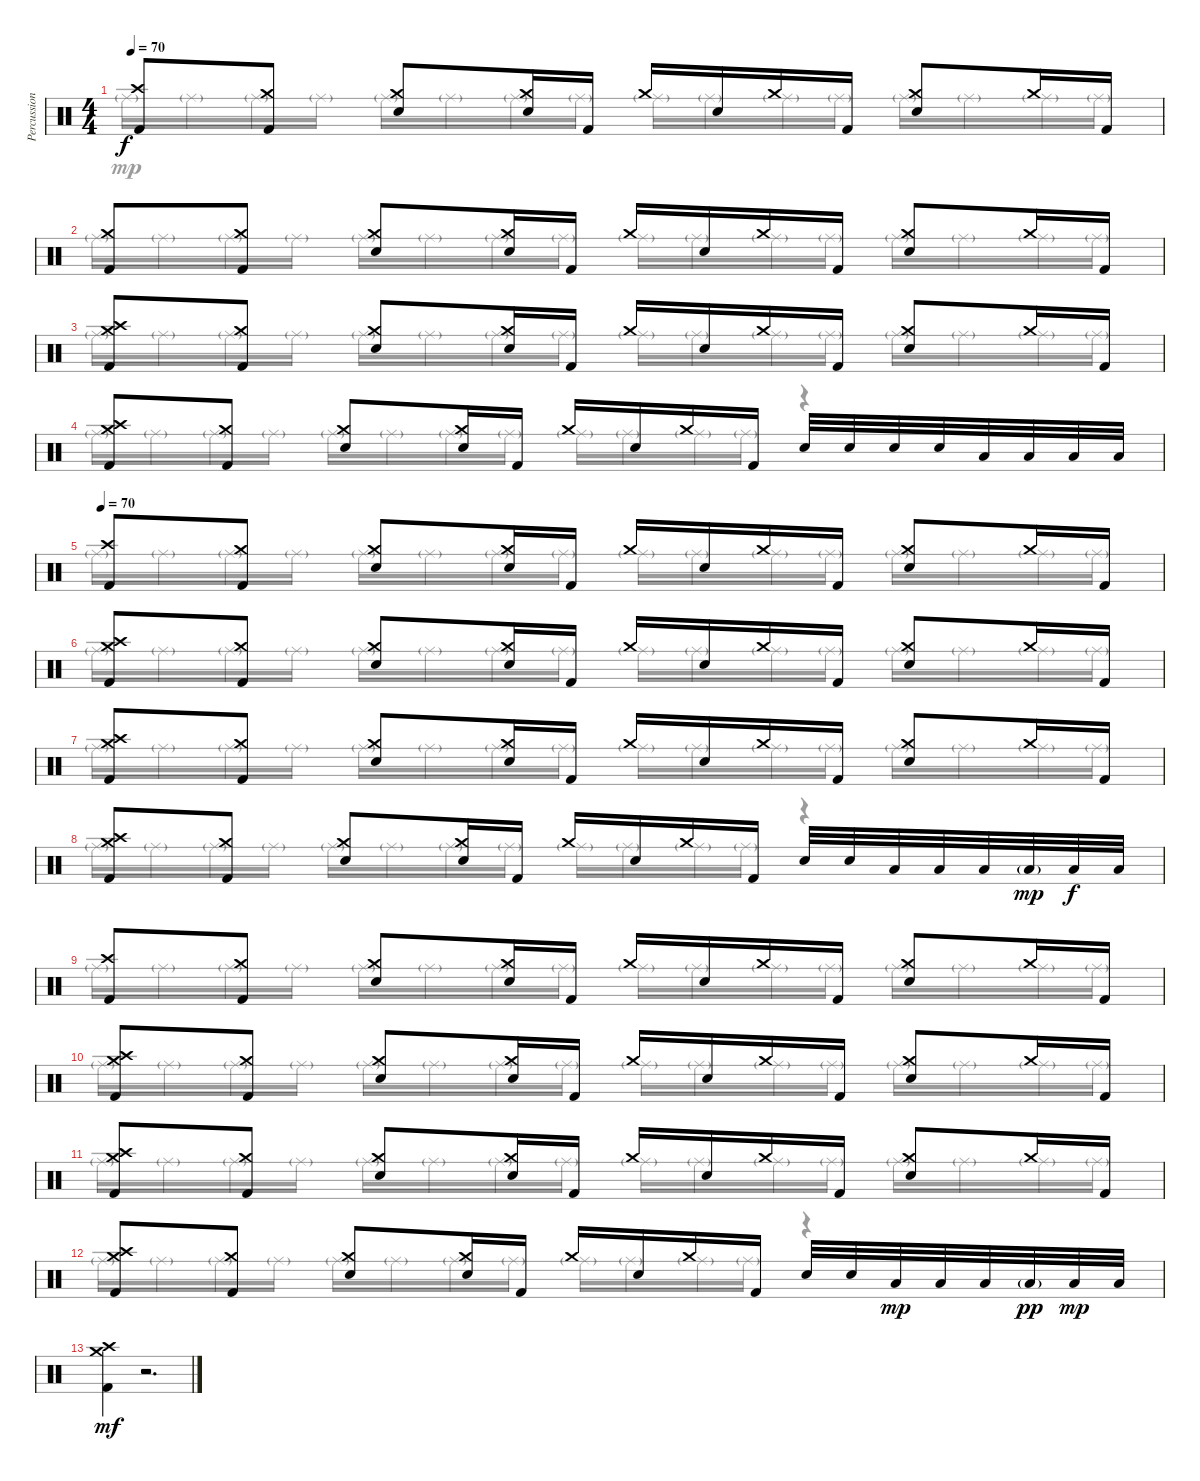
\track ("Percussion" "Percussion") {instrument percussion}
\staff {score}
\articulation defaults
\voice
\ts (4 4)
\tempo 70
\clef neutral
\ks c
("Crash high (hit)" "Kick (hit) 2").8{dy f} ("Crash medium (hit)" "Kick (hit) 2").8 ("Crash medium (hit)" "Electric Snare (hit)").8 ("Crash medium (hit)" "Electric Snare (hit)").16 "Kick (hit) 2".16 "Crash medium (hit)".16 "Electric Snare (hit)".16 "Crash medium (hit)".16 "Kick (hit) 2".16 ("Crash medium (hit)" "Electric Snare (hit)").8 "Crash medium (hit)".16 "Kick (hit) 2".16 |
("Crash medium (hit)" "Kick (hit) 2").8 ("Crash medium (hit)" "Kick (hit) 2").8 ("Crash medium (hit)" "Electric Snare (hit)").8 ("Crash medium (hit)" "Electric Snare (hit)").16 "Kick (hit) 2".16 "Crash medium (hit)".16 "Electric Snare (hit)".16 "Crash medium (hit)".16 "Kick (hit) 2".16 ("Crash medium (hit)" "Electric Snare (hit)").8 "Crash medium (hit)".16 "Kick (hit) 2".16 |
("Crash medium (hit)" "Crash high (hit)" "Kick (hit) 2").8 ("Crash medium (hit)" "Kick (hit) 2").8 ("Crash medium (hit)" "Electric Snare (hit)").8 ("Crash medium (hit)" "Electric Snare (hit)").16 "Kick (hit) 2".16 "Crash medium (hit)".16 "Electric Snare (hit)".16 "Crash medium (hit)".16 "Kick (hit) 2".16 ("Crash medium (hit)" "Electric Snare (hit)").8 "Crash medium (hit)".16 "Kick (hit) 2".16 |
("Crash medium (hit)" "Crash high (hit)" "Kick (hit) 2").8 ("Crash medium (hit)" "Kick (hit) 2").8 ("Crash medium (hit)" "Electric Snare (hit)").8 ("Crash medium (hit)" "Electric Snare (hit)").16 "Kick (hit) 2".16 "Crash medium (hit)".16 "Electric Snare (hit)".16 "Crash medium (hit)".16 "Kick (hit) 2".16 "Electric Snare (hit)".32 "Electric Snare (hit)".32 "Electric Snare (hit)".32 "Electric Snare (hit)".32 "Low Tom (hit)".32 "Low Tom (hit)".32 "Low Tom (hit)".32 "Low Tom (hit)".32 |
\tempo 70
("Crash high (hit)" "Kick (hit) 2").8 ("Crash medium (hit)" "Kick (hit) 2").8 ("Crash medium (hit)" "Electric Snare (hit)").8 ("Crash medium (hit)" "Electric Snare (hit)").16 "Kick (hit) 2".16 "Crash medium (hit)".16 "Electric Snare (hit)".16 "Crash medium (hit)".16 "Kick (hit) 2".16 ("Crash medium (hit)" "Electric Snare (hit)").8 "Crash medium (hit)".16 "Kick (hit) 2".16 |
("Crash medium (hit)" "Crash high (hit)" "Kick (hit) 2").8 ("Crash medium (hit)" "Kick (hit) 2").8 ("Crash medium (hit)" "Electric Snare (hit)").8 ("Crash medium (hit)" "Electric Snare (hit)").16 "Kick (hit) 2".16 "Crash medium (hit)".16 "Electric Snare (hit)".16 "Crash medium (hit)".16 "Kick (hit) 2".16 ("Crash medium (hit)" "Electric Snare (hit)").8 "Crash medium (hit)".16 "Kick (hit) 2".16 |
("Crash medium (hit)" "Crash high (hit)" "Kick (hit) 2").8 ("Crash medium (hit)" "Kick (hit) 2").8 ("Crash medium (hit)" "Electric Snare (hit)").8 ("Crash medium (hit)" "Electric Snare (hit)").16 "Kick (hit) 2".16 "Crash medium (hit)".16 "Electric Snare (hit)".16 "Crash medium (hit)".16 "Kick (hit) 2".16 ("Crash medium (hit)" "Electric Snare (hit)").8 "Crash medium (hit)".16 "Kick (hit) 2".16 |
("Crash medium (hit)" "Crash high (hit)" "Kick (hit) 2").8 ("Crash medium (hit)" "Kick (hit) 2").8 ("Crash medium (hit)" "Electric Snare (hit)").8 ("Crash medium (hit)" "Electric Snare (hit)").16 "Kick (hit) 2".16 "Crash medium (hit)".16 "Electric Snare (hit)".16 "Crash medium (hit)".16 "Kick (hit) 2".16 "Electric Snare (hit)".32 "Electric Snare (hit)".32 "Low Tom (hit)".32 "Low Tom (hit)".32 "Low Tom (hit)".32 "Low Tom (hit)"{g}.32{dy mp} "Low Tom (hit)".32{dy f} "Low Tom (hit)".32 |
("Crash high (hit)" "Kick (hit) 2").8 ("Crash medium (hit)" "Kick (hit) 2").8 ("Crash medium (hit)" "Electric Snare (hit)").8 ("Crash medium (hit)" "Electric Snare (hit)").16 "Kick (hit) 2".16 "Crash medium (hit)".16 "Electric Snare (hit)".16 "Crash medium (hit)".16 "Kick (hit) 2".16 ("Crash medium (hit)" "Electric Snare (hit)").8 "Crash medium (hit)".16 "Kick (hit) 2".16 |
("Crash medium (hit)" "Crash high (hit)" "Kick (hit) 2").8 ("Crash medium (hit)" "Kick (hit) 2").8 ("Crash medium (hit)" "Electric Snare (hit)").8 ("Crash medium (hit)" "Electric Snare (hit)").16 "Kick (hit) 2".16 "Crash medium (hit)".16 "Electric Snare (hit)".16 "Crash medium (hit)".16 "Kick (hit) 2".16 ("Crash medium (hit)" "Electric Snare (hit)").8 "Crash medium (hit)".16 "Kick (hit) 2".16 |
("Crash medium (hit)" "Crash high (hit)" "Kick (hit) 2").8 ("Crash medium (hit)" "Kick (hit) 2").8 ("Crash medium (hit)" "Electric Snare (hit)").8 ("Crash medium (hit)" "Electric Snare (hit)").16 "Kick (hit) 2".16 "Crash medium (hit)".16 "Electric Snare (hit)".16 "Crash medium (hit)".16 "Kick (hit) 2".16 ("Crash medium (hit)" "Electric Snare (hit)").8 "Crash medium (hit)".16 "Kick (hit) 2".16 |
("Crash medium (hit)" "Crash high (hit)" "Kick (hit) 2").8 ("Crash medium (hit)" "Kick (hit) 2").8 ("Crash medium (hit)" "Electric Snare (hit)").8 ("Crash medium (hit)" "Electric Snare (hit)").16 "Kick (hit) 2".16 "Crash medium (hit)".16 "Electric Snare (hit)".16 "Crash medium (hit)".16 "Kick (hit) 2".16 "Electric Snare (hit)".32 "Electric Snare (hit)".32 "Low Tom (hit)".32{dy mp} "Low Tom (hit)".32 "Low Tom (hit)".32 "Low Tom (hit)"{g}.32{dy pp} "Low Tom (hit)".32{dy mp} "Low Tom (hit)".32 |
("Crash medium (hit)" "Crash high (hit)" "Kick (hit) 2").4{dy mf} r.2{d} |
|
|
\voice
\clef neutral
\ottava regular
\simile none
\ks c "Ride (middle)"{g}.16{dy mp} "Ride (middle)"{g}.16 "Ride (middle)"{g}.16 "Ride (middle)"{g}.16 "Ride (middle)"{g}.16 "Ride (middle)"{g}.16 "Ride (middle)"{g}.16 "Ride (middle)"{g}.16 "Ride (middle)"{g}.16 "Ride (middle)"{g}.16 "Ride (middle)"{g}.16 "Ride (middle)"{g}.16 "Ride (middle)"{g}.16 "Ride (middle)"{g}.16 "Ride (middle)"{g}.16 "Ride (middle)"{g}.16
|
"Ride (middle)"{g}.16 "Ride (middle)"{g}.16 "Ride (middle)"{g}.16 "Ride (middle)"{g}.16 "Ride (middle)"{g}.16 "Ride (middle)"{g}.16 "Ride (middle)"{g}.16 "Ride (middle)"{g}.16 "Ride (middle)"{g}.16 "Ride (middle)"{g}.16 "Ride (middle)"{g}.16 "Ride (middle)"{g}.16 "Ride (middle)"{g}.16 "Ride (middle)"{g}.16 "Ride (middle)"{g}.16 "Ride (middle)"{g}.16 |
"Ride (middle)"{g}.16 "Ride (middle)"{g}.16 "Ride (middle)"{g}.16 "Ride (middle)"{g}.16 "Ride (middle)"{g}.16 "Ride (middle)"{g}.16 "Ride (middle)"{g}.16 "Ride (middle)"{g}.16 "Ride (middle)"{g}.16 "Ride (middle)"{g}.16 "Ride (middle)"{g}.16 "Ride (middle)"{g}.16 "Ride (middle)"{g}.16 "Ride (middle)"{g}.16 "Ride (middle)"{g}.16 "Ride (middle)"{g}.16 |
"Ride (middle)"{g}.16 "Ride (middle)"{g}.16 "Ride (middle)"{g}.16 "Ride (middle)"{g}.16 "Ride (middle)"{g}.16 "Ride (middle)"{g}.16 "Ride (middle)"{g}.16 "Ride (middle)"{g}.16 "Ride (middle)"{g}.16 "Ride (middle)"{g}.16 "Ride (middle)"{g}.16 "Ride (middle)"{g}.16 r.4 |
"Ride (middle)"{g}.16 "Ride (middle)"{g}.16 "Ride (middle)"{g}.16 "Ride (middle)"{g}.16 "Ride (middle)"{g}.16 "Ride (middle)"{g}.16 "Ride (middle)"{g}.16 "Ride (middle)"{g}.16 "Ride (middle)"{g}.16 "Ride (middle)"{g}.16 "Ride (middle)"{g}.16 "Ride (middle)"{g}.16 "Ride (middle)"{g}.16 "Ride (middle)"{g}.16 "Ride (middle)"{g}.16 "Ride (middle)"{g}.16 |
"Ride (middle)"{g}.16 "Ride (middle)"{g}.16 "Ride (middle)"{g}.16 "Ride (middle)"{g}.16 "Ride (middle)"{g}.16 "Ride (middle)"{g}.16 "Ride (middle)"{g}.16 "Ride (middle)"{g}.16 "Ride (middle)"{g}.16 "Ride (middle)"{g}.16 "Ride (middle)"{g}.16 "Ride (middle)"{g}.16 "Ride (middle)"{g}.16 "Ride (middle)"{g}.16 "Ride (middle)"{g}.16 "Ride (middle)"{g}.16 |
"Ride (middle)"{g}.16 "Ride (middle)"{g}.16 "Ride (middle)"{g}.16 "Ride (middle)"{g}.16 "Ride (middle)"{g}.16 "Ride (middle)"{g}.16 "Ride (middle)"{g}.16 "Ride (middle)"{g}.16 "Ride (middle)"{g}.16 "Ride (middle)"{g}.16 "Ride (middle)"{g}.16 "Ride (middle)"{g}.16 "Ride (middle)"{g}.16 "Ride (middle)"{g}.16 "Ride (middle)"{g}.16 "Ride (middle)"{g}.16 |
"Ride (middle)"{g}.16 "Ride (middle)"{g}.16 "Ride (middle)"{g}.16 "Ride (middle)"{g}.16 "Ride (middle)"{g}.16 "Ride (middle)"{g}.16 "Ride (middle)"{g}.16 "Ride (middle)"{g}.16 "Ride (middle)"{g}.16 "Ride (middle)"{g}.16 "Ride (middle)"{g}.16 "Ride (middle)"{g}.16 r.4 |
"Ride (middle)"{g}.16 "Ride (middle)"{g}.16 "Ride (middle)"{g}.16 "Ride (middle)"{g}.16 "Ride (middle)"{g}.16 "Ride (middle)"{g}.16 "Ride (middle)"{g}.16 "Ride (middle)"{g}.16 "Ride (middle)"{g}.16 "Ride (middle)"{g}.16 "Ride (middle)"{g}.16 "Ride (middle)"{g}.16 "Ride (middle)"{g}.16 "Ride (middle)"{g}.16 "Ride (middle)"{g}.16 "Ride (middle)"{g}.16 |
"Ride (middle)"{g}.16 "Ride (middle)"{g}.16 "Ride (middle)"{g}.16 "Ride (middle)"{g}.16 "Ride (middle)"{g}.16 "Ride (middle)"{g}.16 "Ride (middle)"{g}.16 "Ride (middle)"{g}.16 "Ride (middle)"{g}.16 "Ride (middle)"{g}.16 "Ride (middle)"{g}.16 "Ride (middle)"{g}.16 "Ride (middle)"{g}.16 "Ride (middle)"{g}.16 "Ride (middle)"{g}.16 "Ride (middle)"{g}.16 |
"Ride (middle)"{g}.16 "Ride (middle)"{g}.16 "Ride (middle)"{g}.16 "Ride (middle)"{g}.16 "Ride (middle)"{g}.16 "Ride (middle)"{g}.16 "Ride (middle)"{g}.16 "Ride (middle)"{g}.16 "Ride (middle)"{g}.16 "Ride (middle)"{g}.16 "Ride (middle)"{g}.16 "Ride (middle)"{g}.16 "Ride (middle)"{g}.16 "Ride (middle)"{g}.16 "Ride (middle)"{g}.16 "Ride (middle)"{g}.16 |
"Ride (middle)"{g}.16 "Ride (middle)"{g}.16 "Ride (middle)"{g}.16 "Ride (middle)"{g}.16 "Ride (middle)"{g}.16 "Ride (middle)"{g}.16 "Ride (middle)"{g}.16 "Ride (middle)"{g}.16 "Ride (middle)"{g}.16 "Ride (middle)"{g}.16 "Ride (middle)"{g}.16 "Ride (middle)"{g}.16 r.4 |
|
|
|
